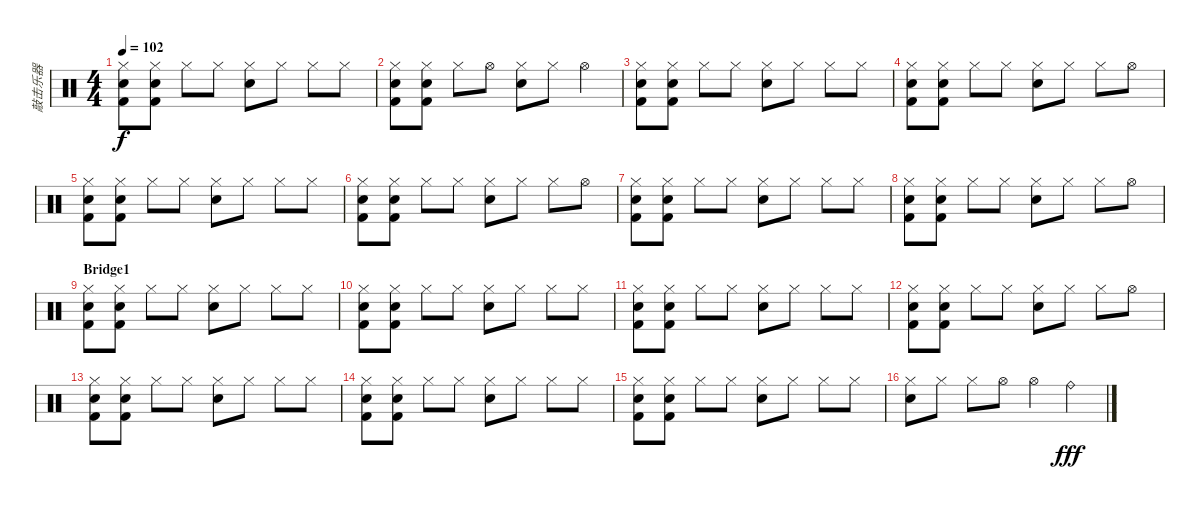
\track ("敲击乐器" "敲击乐器") {instrument percussion}
\staff {score}
\articulation defaults
\ts (4 4)
\tempo 102
\clef neutral
\ks c
("Hi-Hat (closed)" "Kick (hit) 2" "Snare (hit)").8{dy f} ("Hi-Hat (closed)" "Kick (hit) 2" "Snare (hit)").8 "Hi-Hat (closed)".8 "Hi-Hat (closed)".8 ("Hi-Hat (closed)" "Metronome (bell)").8 "Hi-Hat (closed)".8 "Hi-Hat (closed)".8 "Hi-Hat (closed)".8 |
("Hi-Hat (closed)" "Kick (hit) 2" "Snare (hit)").8 ("Hi-Hat (closed)" "Kick (hit) 2" "Snare (hit)").8 "Hi-Hat (closed)".8 "Hi-Hat (open)".8 ("Hi-Hat (closed)" "Metronome (bell)").8 "Hi-Hat (closed)".8 "Hi-Hat (open)".4 |
("Hi-Hat (closed)" "Kick (hit) 2" "Snare (hit)").8 ("Hi-Hat (closed)" "Kick (hit) 2" "Snare (hit)").8 "Hi-Hat (closed)".8 "Hi-Hat (closed)".8 ("Hi-Hat (closed)" "Metronome (bell)").8 "Hi-Hat (closed)".8 "Hi-Hat (closed)".8 "Hi-Hat (closed)".8 |
("Hi-Hat (closed)" "Kick (hit) 2" "Snare (hit)").8 ("Hi-Hat (closed)" "Kick (hit) 2" "Snare (hit)").8 "Hi-Hat (closed)".8 "Hi-Hat (closed)".8 ("Hi-Hat (closed)" "Metronome (bell)").8 "Hi-Hat (closed)".8 "Hi-Hat (closed)".8 "Hi-Hat (open)".8 |
("Hi-Hat (closed)" "Kick (hit) 2" "Snare (hit)").8 ("Hi-Hat (closed)" "Kick (hit) 2" "Snare (hit)").8 "Hi-Hat (closed)".8 "Hi-Hat (closed)".8 ("Hi-Hat (closed)" "Metronome (bell)").8 "Hi-Hat (closed)".8 "Hi-Hat (closed)".8 "Hi-Hat (closed)".8 |
("Hi-Hat (closed)" "Kick (hit) 2" "Snare (hit)").8 ("Hi-Hat (closed)" "Kick (hit) 2" "Snare (hit)").8 "Hi-Hat (closed)".8 "Hi-Hat (closed)".8 ("Hi-Hat (closed)" "Metronome (bell)").8 "Hi-Hat (closed)".8 "Hi-Hat (closed)".8 "Hi-Hat (open)".8 |
("Hi-Hat (closed)" "Kick (hit) 2" "Snare (hit)").8 ("Hi-Hat (closed)" "Kick (hit) 2" "Snare (hit)").8 "Hi-Hat (closed)".8 "Hi-Hat (closed)".8 ("Hi-Hat (closed)" "Metronome (bell)").8 "Hi-Hat (closed)".8 "Hi-Hat (closed)".8 "Hi-Hat (closed)".8 |
("Hi-Hat (closed)" "Kick (hit) 2" "Snare (hit)").8 ("Hi-Hat (closed)" "Kick (hit) 2" "Snare (hit)").8 "Hi-Hat (closed)".8 "Hi-Hat (closed)".8 ("Hi-Hat (closed)" "Metronome (bell)").8 "Hi-Hat (closed)".8 "Hi-Hat (closed)".8 "Hi-Hat (open)".8 |
\section ("" "Bridge1")
("Hi-Hat (closed)" "Kick (hit) 2" "Snare (hit)").8 ("Hi-Hat (closed)" "Kick (hit) 2" "Snare (hit)").8 "Hi-Hat (closed)".8 "Hi-Hat (closed)".8 ("Hi-Hat (closed)" "Metronome (bell)").8 "Hi-Hat (closed)".8 "Hi-Hat (closed)".8 "Hi-Hat (closed)".8 |
("Hi-Hat (closed)" "Kick (hit) 2" "Snare (hit)").8 ("Hi-Hat (closed)" "Kick (hit) 2" "Snare (hit)").8 "Hi-Hat (closed)".8 "Hi-Hat (closed)".8 ("Hi-Hat (closed)" "Metronome (bell)").8 "Hi-Hat (closed)".8 "Hi-Hat (closed)".8 "Hi-Hat (closed)".8 |
("Hi-Hat (closed)" "Kick (hit) 2" "Snare (hit)").8 ("Hi-Hat (closed)" "Kick (hit) 2" "Snare (hit)").8 "Hi-Hat (closed)".8 "Hi-Hat (closed)".8 ("Hi-Hat (closed)" "Metronome (bell)").8 "Hi-Hat (closed)".8 "Hi-Hat (closed)".8 "Hi-Hat (closed)".8 |
("Hi-Hat (closed)" "Kick (hit) 2" "Snare (hit)").8 ("Hi-Hat (closed)" "Kick (hit) 2" "Snare (hit)").8 "Hi-Hat (closed)".8 "Hi-Hat (closed)".8 ("Hi-Hat (closed)" "Metronome (bell)").8 "Hi-Hat (closed)".8 "Hi-Hat (closed)".8 "Hi-Hat (open)".8 |
("Hi-Hat (closed)" "Kick (hit) 2" "Snare (hit)").8 ("Hi-Hat (closed)" "Kick (hit) 2" "Snare (hit)").8 "Hi-Hat (closed)".8 "Hi-Hat (closed)".8 ("Hi-Hat (closed)" "Metronome (bell)").8 "Hi-Hat (closed)".8 "Hi-Hat (closed)".8 "Hi-Hat (closed)".8 |
("Hi-Hat (closed)" "Kick (hit) 2" "Snare (hit)").8 ("Hi-Hat (closed)" "Kick (hit) 2" "Snare (hit)").8 "Hi-Hat (closed)".8 "Hi-Hat (closed)".8 ("Hi-Hat (closed)" "Metronome (bell)").8 "Hi-Hat (closed)".8 "Hi-Hat (closed)".8 "Hi-Hat (closed)".8 |
("Hi-Hat (closed)" "Kick (hit) 2" "Snare (hit)").8 ("Hi-Hat (closed)" "Kick (hit) 2" "Snare (hit)").8 "Hi-Hat (closed)".8 "Hi-Hat (closed)".8 ("Hi-Hat (closed)" "Metronome (bell)").8 "Hi-Hat (closed)".8 "Hi-Hat (closed)".8 "Hi-Hat (closed)".8 |
("Hi-Hat (closed)" "Snare (hit)").8 "Hi-Hat (closed)".8 "Hi-Hat (closed)".8 "Hi-Hat (open)".8 "Hi-Hat (open)".4 "Ride (bell)".4{dy fff}
